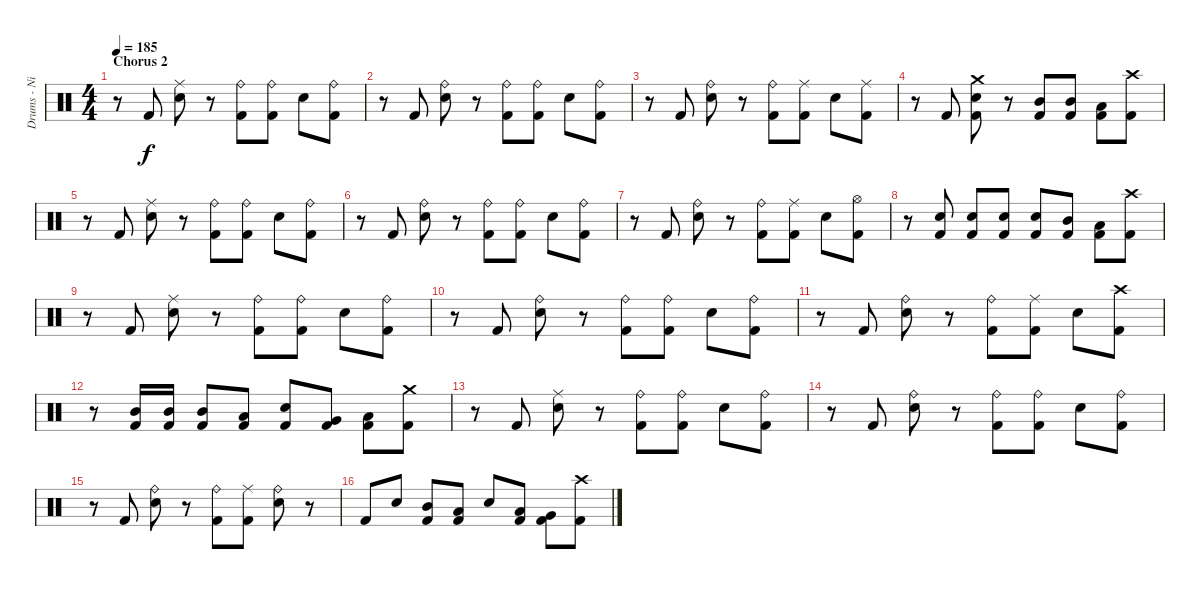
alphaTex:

\track ("Drums - Nicko" "Drums - Ni") {instrument percussion}
\staff {score}
\articulation defaults
\ts (4 4)
\section ("" "Chorus 2")
\tempo 185
\clef neutral
\ks c
r.8{dy f} "Kick (hit) 2".8 ("Ride (middle)" "Snare (hit) 2").8 r.8 ("Ride (bell)" "Kick (hit) 2").8 ("Ride (bell)" "Kick (hit) 2").8 "Snare (hit) 2".8 ("Ride (bell)" "Kick (hit) 2").8 |
r.8 "Kick (hit) 2".8 ("Ride (bell)" "Snare (hit) 2").8 r.8 ("Ride (bell)" "Kick (hit) 2").8 ("Ride (bell)" "Kick (hit) 2").8 "Snare (hit) 2".8 ("Ride (bell)" "Kick (hit) 2").8 |
r.8 "Kick (hit) 2".8 ("Ride (bell)" "Snare (hit) 2").8 r.8 ("Ride (bell)" "Kick (hit) 2").8 ("Ride (middle)" "Kick (hit) 2").8 "Snare (hit) 2".8 ("Ride (middle)" "Kick (hit) 2").8 |
r.8 "Kick (hit) 2".8 ("Crash medium (hit)" "Snare (hit) 2" "Kick (hit) 2").8 r.8 ("Mid Tom (hit)" "Kick (hit) 2").8 ("Mid Tom (hit)" "Kick (hit) 2").8 ("Low Tom (hit)" "Kick (hit) 2").8 ("Crash high (hit)" "Kick (hit) 2").8 |
r.8 "Kick (hit) 2".8 ("Ride (middle)" "Snare (hit) 2").8 r.8 ("Ride (bell)" "Kick (hit) 2").8 ("Ride (bell)" "Kick (hit) 2").8 "Snare (hit) 2".8 ("Ride (bell)" "Kick (hit) 2").8 |
r.8 "Kick (hit) 2".8 ("Ride (bell)" "Snare (hit) 2").8 r.8 ("Ride (bell)" "Kick (hit) 2").8 ("Ride (bell)" "Kick (hit) 2").8 "Snare (hit) 2".8 ("Ride (bell)" "Kick (hit) 2").8 |
r.8 "Kick (hit) 2".8 ("Ride (bell)" "Snare (hit) 2").8 r.8 ("Ride (bell)" "Kick (hit) 2").8 ("Ride (middle)" "Kick (hit) 2").8 "Snare (hit) 2".8 ("Hi-Hat (open)" "Kick (hit) 2").8 |
r.8 ("Snare (hit) 2" "Kick (hit) 2").8 ("Snare (hit) 2" "Kick (hit) 2").8 ("Snare (hit) 2" "Kick (hit) 2").8 ("Snare (hit) 2" "Kick (hit) 2").8 ("Mid Tom (hit)" "Kick (hit) 2").8 ("Low Tom (hit)" "Kick (hit) 2").8 ("Crash high (hit)" "Kick (hit) 2").8 |
\section ("" "")
r.8 "Kick (hit) 2".8 ("Ride (middle)" "Snare (hit) 2").8 r.8 ("Ride (bell)" "Kick (hit) 2").8 ("Ride (bell)" "Kick (hit) 2").8 "Snare (hit) 2".8 ("Ride (bell)" "Kick (hit) 2").8 |
r.8 "Kick (hit) 2".8 ("Ride (bell)" "Snare (hit) 2").8 r.8 ("Ride (bell)" "Kick (hit) 2").8 ("Ride (bell)" "Kick (hit) 2").8 "Snare (hit) 2".8 ("Ride (bell)" "Kick (hit) 2").8 |
r.8 "Kick (hit) 2".8 ("Ride (bell)" "Snare (hit) 2").8 r.8 ("Ride (bell)" "Kick (hit) 2").8 ("Ride (middle)" "Kick (hit) 2").8 "Snare (hit) 2".8 ("Crash high (hit)" "Kick (hit) 2").8 |
r.8 ("Mid Tom (hit)" "Kick (hit) 2").16 ("Mid Tom (hit)" "Kick (hit) 2").16 ("Mid Tom (hit)" "Kick (hit) 2").8 ("Low Tom (hit)" "Kick (hit) 2").8 ("Snare (hit) 2" "Kick (hit) 2").8 ("Very Low Tom (hit)" "Kick (hit) 2").8 ("Low Floor Tom (hit)" "Kick (hit) 2").8 ("Crash medium (hit)" "Kick (hit) 2").8 |
r.8 "Kick (hit) 2".8 ("Ride (middle)" "Snare (hit) 2").8 r.8 ("Ride (bell)" "Kick (hit) 2").8 ("Ride (bell)" "Kick (hit) 2").8 "Snare (hit) 2".8 ("Ride (bell)" "Kick (hit) 2").8 |
r.8 "Kick (hit) 2".8 ("Ride (bell)" "Snare (hit) 2").8 r.8 ("Ride (bell)" "Kick (hit) 2").8 ("Ride (bell)" "Kick (hit) 2").8 "Snare (hit) 2".8 ("Ride (bell)" "Kick (hit) 2").8 |
r.8 "Kick (hit) 2".8 ("Ride (bell)" "Snare (hit) 2").8 r.8 ("Ride (bell)" "Kick (hit) 2").8 ("Ride (middle)" "Kick (hit) 2").8 ("Ride (bell)" "Snare (hit) 2").8 r.8 |
"Kick (hit) 2".8 "Snare (hit) 2".8 ("Mid Tom (hit)" "Kick (hit) 2").8 ("Low Tom (hit)" "Kick (hit) 2").8 "Snare (hit) 2".8 ("Low Tom (hit)" "Kick (hit) 2").8 ("Very Low Tom (hit)" "Kick (hit) 2").8 ("Crash high (hit)" "Kick (hit) 2").8
